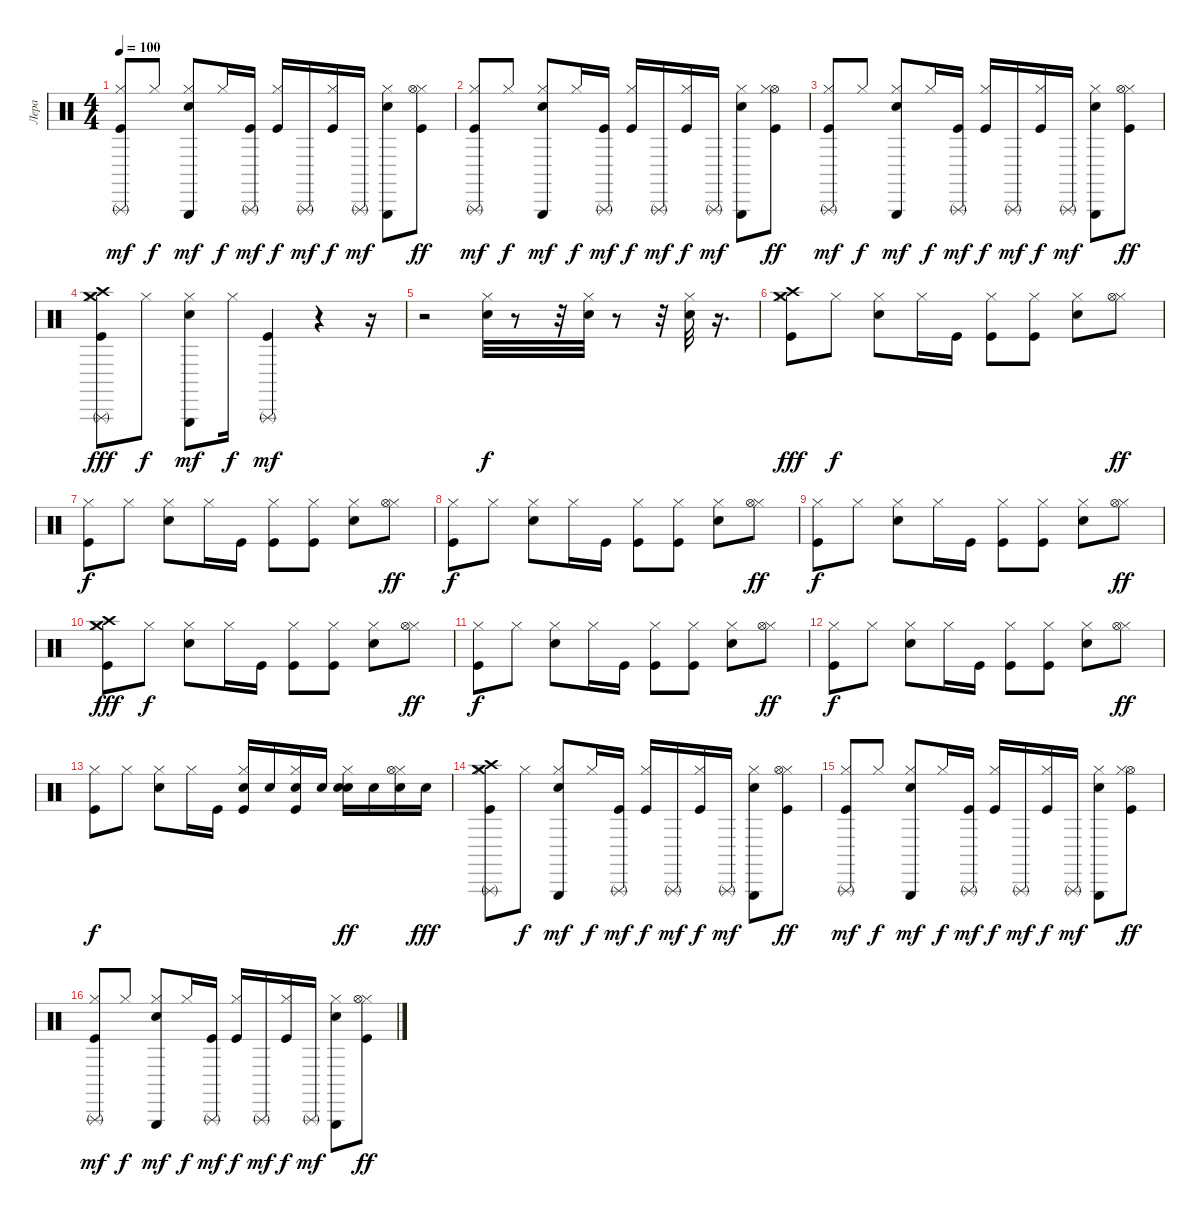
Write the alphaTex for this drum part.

\track ("Лера" "Лера") {instrument percussion}
\staff {score}
\articulation defaults
\ts (4 4)
\tempo 100
\clef neutral
\ks c
("Kick (hit)" "Hi-Hat (closed)" "Triangle (rnute)").8{dy mf} "Hi-Hat (closed)".8{dy f} ("Hi-Hat (closed)" "Triangle (hit)" "Electric Snare (hit)").8{dy mf} "Hi-Hat (closed)".16{dy f} ("Triangle (rnute)" "Kick (hit)").16{dy mf} ("Hi-Hat (closed)" "Kick (hit)").16{dy f} "Triangle (rnute)".16{dy mf} ("Hi-Hat (closed)" "Kick (hit)").16{dy f} "Triangle (rnute)".16{dy mf} ("Hi-Hat (closed)" "Electric Snare (hit)" "Triangle (hit)").8 ("Kick (hit)" "Hi-Hat (closed)" "Hi-Hat (open)").8{dy ff} |
("Hi-Hat (closed)" "Kick (hit)" "Triangle (rnute)").8{dy mf} "Hi-Hat (closed)".8{dy f} ("Electric Snare (hit)" "Triangle (hit)" "Hi-Hat (closed)").8{dy mf} "Hi-Hat (closed)".16{dy f} ("Triangle (rnute)" "Kick (hit)").16{dy mf} ("Hi-Hat (closed)" "Kick (hit)").16{dy f} "Triangle (rnute)".16{dy mf} ("Hi-Hat (closed)" "Kick (hit)").16{dy f} "Triangle (rnute)".16{dy mf} ("Hi-Hat (closed)" "Electric Snare (hit)" "Triangle (hit)").8 ("Kick (hit)" "Hi-Hat (open)" "Hi-Hat (closed)").8{dy ff} |
("Kick (hit)" "Triangle (rnute)" "Hi-Hat (closed)").8{dy mf} "Hi-Hat (closed)".8{dy f} ("Electric Snare (hit)" "Hi-Hat (closed)" "Triangle (hit)").8{dy mf} "Hi-Hat (closed)".16{dy f} ("Kick (hit)" "Triangle (rnute)").16{dy mf} ("Kick (hit)" "Hi-Hat (closed)").16{dy f} "Triangle (rnute)".16{dy mf} ("Kick (hit)" "Hi-Hat (closed)").16{dy f} "Triangle (rnute)".16{dy mf} ("Hi-Hat (closed)" "Electric Snare (hit)" "Triangle (hit)").8 ("Hi-Hat (closed)" "Kick (hit)" "Hi-Hat (open)").8{dy ff} |
("Triangle (rnute)" "Crash high (hit)" "Kick (hit)" "Crash medium (hit)" "Hi-Hat (closed)").8{dy fff} "Hi-Hat (closed)".8{dy f} ("Triangle (hit)" "Electric Snare (hit)" "Hi-Hat (closed)").8{dy mf} "Hi-Hat (closed)".16{dy f} ("Kick (hit)" "Triangle (rnute)").4{dy mf} r.4 r.16 |
r.2 ("Hi-Hat (closed)" "Electric Snare (hit)").32{dy f} r.8 r.32 ("Hi-Hat (closed)" "Electric Snare (hit)").32 r.8 r.32 ("Hi-Hat (closed)" "Electric Snare (hit)").32 r.16{d} |
("Kick (hit)" "Crash medium (hit)" "Crash high (hit)" "Hi-Hat (closed)").8{dy fff} "Hi-Hat (closed)".8{dy f} ("Electric Snare (hit)" "Hi-Hat (closed)").8 "Hi-Hat (closed)".16 "Kick (hit)".16 ("Hi-Hat (closed)" "Kick (hit)").8 ("Kick (hit)" "Hi-Hat (closed)").8 ("Electric Snare (hit)" "Hi-Hat (closed)").8 ("Hi-Hat (closed)" "Hi-Hat (open)").8{dy ff} |
("Kick (hit)" "Hi-Hat (closed)").8{dy f} "Hi-Hat (closed)".8 ("Electric Snare (hit)" "Hi-Hat (closed)").8 "Hi-Hat (closed)".16 "Kick (hit)".16 ("Hi-Hat (closed)" "Kick (hit)").8 ("Kick (hit)" "Hi-Hat (closed)").8 ("Electric Snare (hit)" "Hi-Hat (closed)").8 ("Hi-Hat (closed)" "Hi-Hat (open)").8{dy ff} |
("Kick (hit)" "Hi-Hat (closed)").8{dy f} "Hi-Hat (closed)".8 ("Electric Snare (hit)" "Hi-Hat (closed)").8 "Hi-Hat (closed)".16 "Kick (hit)".16 ("Hi-Hat (closed)" "Kick (hit)").8 ("Kick (hit)" "Hi-Hat (closed)").8 ("Electric Snare (hit)" "Hi-Hat (closed)").8 ("Hi-Hat (closed)" "Hi-Hat (open)").8{dy ff} |
("Kick (hit)" "Hi-Hat (closed)").8{dy f} "Hi-Hat (closed)".8 ("Electric Snare (hit)" "Hi-Hat (closed)").8 "Hi-Hat (closed)".16 "Kick (hit)".16 ("Hi-Hat (closed)" "Kick (hit)").8 ("Kick (hit)" "Hi-Hat (closed)").8 ("Electric Snare (hit)" "Hi-Hat (closed)").8 ("Hi-Hat (closed)" "Hi-Hat (open)").8{dy ff} |
("Crash medium (hit)" "Crash high (hit)" "Kick (hit)" "Hi-Hat (closed)").8{dy fff} "Hi-Hat (closed)".8{dy f} ("Electric Snare (hit)" "Hi-Hat (closed)").8 "Hi-Hat (closed)".16 "Kick (hit)".16 ("Hi-Hat (closed)" "Kick (hit)").8 ("Kick (hit)" "Hi-Hat (closed)").8 ("Electric Snare (hit)" "Hi-Hat (closed)").8 ("Hi-Hat (closed)" "Hi-Hat (open)").8{dy ff} |
("Kick (hit)" "Hi-Hat (closed)").8{dy f} "Hi-Hat (closed)".8 ("Electric Snare (hit)" "Hi-Hat (closed)").8 "Hi-Hat (closed)".16 "Kick (hit)".16 ("Hi-Hat (closed)" "Kick (hit)").8 ("Kick (hit)" "Hi-Hat (closed)").8 ("Electric Snare (hit)" "Hi-Hat (closed)").8 ("Hi-Hat (closed)" "Hi-Hat (open)").8{dy ff} |
("Kick (hit)" "Hi-Hat (closed)").8{dy f} "Hi-Hat (closed)".8 ("Electric Snare (hit)" "Hi-Hat (closed)").8 "Hi-Hat (closed)".16 "Kick (hit)".16 ("Hi-Hat (closed)" "Kick (hit)").8 ("Kick (hit)" "Hi-Hat (closed)").8 ("Electric Snare (hit)" "Hi-Hat (closed)").8 ("Hi-Hat (closed)" "Hi-Hat (open)").8{dy ff} |
("Kick (hit)" "Hi-Hat (closed)").8{dy f} "Hi-Hat (closed)".8 ("Electric Snare (hit)" "Hi-Hat (closed)").8 "Hi-Hat (closed)".16 "Kick (hit)".16 ("Snare (hit) 2" "Hi-Hat (closed)" "Kick (hit)").16 "Snare (hit) 2".16 ("Snare (hit) 2" "Kick (hit)" "Hi-Hat (closed)").16 "Snare (hit) 2".16 ("Snare (hit) 2" "Electric Snare (hit)" "Hi-Hat (closed)").16{dy ff} "Snare (hit) 2".16 ("Snare (hit) 2" "Hi-Hat (closed)" "Hi-Hat (open)").16 "Snare (hit) 2".16{dy fff} |
("Triangle (rnute)" "Kick (hit)" "Crash medium (hit)" "Crash high (hit)" "Hi-Hat (closed)").8 "Hi-Hat (closed)".8{dy f} ("Triangle (hit)" "Electric Snare (hit)" "Hi-Hat (closed)").8{dy mf} "Hi-Hat (closed)".16{dy f} ("Kick (hit)" "Triangle (rnute)").16{dy mf} ("Hi-Hat (closed)" "Kick (hit)").16{dy f} "Triangle (rnute)".16{dy mf} ("Kick (hit)" "Hi-Hat (closed)").16{dy f} "Triangle (rnute)".16{dy mf} ("Triangle (hit)" "Electric Snare (hit)" "Hi-Hat (closed)").8 ("Kick (hit)" "Hi-Hat (closed)" "Hi-Hat (open)").8{dy ff} |
("Kick (hit)" "Hi-Hat (closed)" "Triangle (rnute)").8{dy mf} "Hi-Hat (closed)".8{dy f} ("Electric Snare (hit)" "Triangle (hit)" "Hi-Hat (closed)").8{dy mf} "Hi-Hat (closed)".16{dy f} ("Triangle (rnute)" "Kick (hit)").16{dy mf} ("Hi-Hat (closed)" "Kick (hit)").16{dy f} "Triangle (rnute)".16{dy mf} ("Kick (hit)" "Hi-Hat (closed)").16{dy f} "Triangle (rnute)".16{dy mf} ("Electric Snare (hit)" "Hi-Hat (closed)" "Triangle (hit)").8 ("Kick (hit)" "Hi-Hat (open)" "Hi-Hat (closed)").8{dy ff} |
("Kick (hit)" "Hi-Hat (closed)" "Triangle (rnute)").8{dy mf} "Hi-Hat (closed)".8{dy f} ("Electric Snare (hit)" "Triangle (hit)" "Hi-Hat (closed)").8{dy mf} "Hi-Hat (closed)".16{dy f} ("Kick (hit)" "Triangle (rnute)").16{dy mf} ("Hi-Hat (closed)" "Kick (hit)").16{dy f} "Triangle (rnute)".16{dy mf} ("Kick (hit)" "Hi-Hat (closed)").16{dy f} "Triangle (rnute)".16{dy mf} ("Electric Snare (hit)" "Hi-Hat (closed)" "Triangle (hit)").8 ("Hi-Hat (closed)" "Kick (hit)" "Hi-Hat (open)").8{dy ff}
